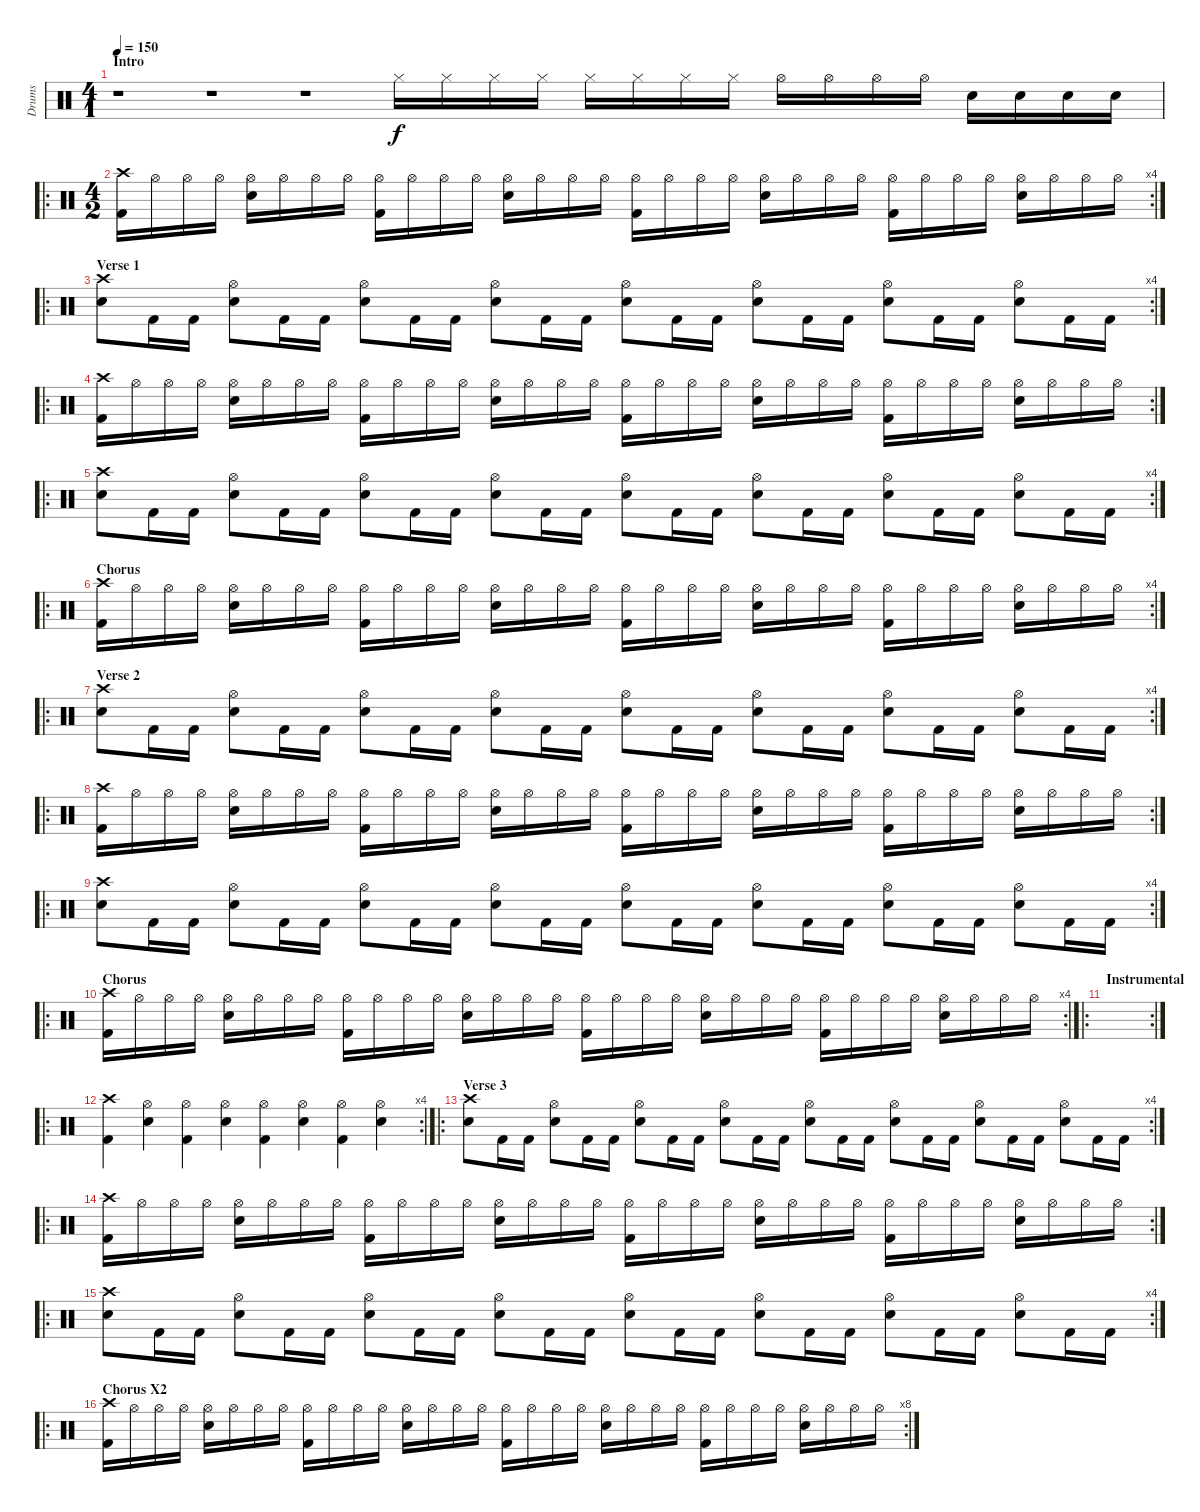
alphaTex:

\track ("Drums" "Drums") {instrument percussion}
\staff {score}
\articulation defaults
\ts (4 1)
\section ("" "Intro")
\tempo 150
\clef neutral
\ks c
r.1{dy f} r.1 r.1 "Hi-Hat (closed)".16 "Hi-Hat (closed)".16 "Hi-Hat (closed)".16 "Hi-Hat (closed)".16 "Hi-Hat (closed)".16 "Hi-Hat (closed)".16 "Hi-Hat (closed)".16 "Hi-Hat (closed)".16 "Hi-Hat (open)".16 "Hi-Hat (open)".16 "Hi-Hat (open)".16 "Hi-Hat (open)".16 "Electric Snare (hit)".16 "Electric Snare (hit)".16 "Electric Snare (hit)".16 "Electric Snare (hit)".16 |
\ro
\rc 4
\ts (4 2)
("Crash high (hit)" "Kick (hit) 2").16 "Hi-Hat (open)".16 "Hi-Hat (open)".16 "Hi-Hat (open)".16 ("Hi-Hat (open)" "Electric Snare (hit)").16 "Hi-Hat (open)".16 "Hi-Hat (open)".16 "Hi-Hat (open)".16 ("Hi-Hat (open)" "Kick (hit) 2").16 "Hi-Hat (open)".16 "Hi-Hat (open)".16 "Hi-Hat (open)".16 ("Hi-Hat (open)" "Electric Snare (hit)").16 "Hi-Hat (open)".16 "Hi-Hat (open)".16 "Hi-Hat (open)".16 ("Hi-Hat (open)" "Kick (hit) 2").16 "Hi-Hat (open)".16 "Hi-Hat (open)".16 "Hi-Hat (open)".16 ("Hi-Hat (open)" "Electric Snare (hit)").16 "Hi-Hat (open)".16 "Hi-Hat (open)".16 "Hi-Hat (open)".16 ("Hi-Hat (open)" "Kick (hit) 2").16 "Hi-Hat (open)".16 "Hi-Hat (open)".16 "Hi-Hat (open)".16 ("Hi-Hat (open)" "Electric Snare (hit)").16 "Hi-Hat (open)".16 "Hi-Hat (open)".16 "Hi-Hat (open)".16 |
\ro
\rc 4
\section ("" "Verse 1")
("Crash high (hit)" "Electric Snare (hit)").8 "Kick (hit) 2".16 "Kick (hit) 2".16 ("Hi-Hat (open)" "Electric Snare (hit)").8 "Kick (hit) 2".16 "Kick (hit) 2".16 ("Hi-Hat (open)" "Electric Snare (hit)").8 "Kick (hit) 2".16 "Kick (hit) 2".16 ("Hi-Hat (open)" "Electric Snare (hit)").8 "Kick (hit) 2".16 "Kick (hit) 2".16 ("Hi-Hat (open)" "Electric Snare (hit)").8 "Kick (hit) 2".16 "Kick (hit) 2".16 ("Hi-Hat (open)" "Electric Snare (hit)").8 "Kick (hit) 2".16 "Kick (hit) 2".16 ("Hi-Hat (open)" "Electric Snare (hit)").8 "Kick (hit) 2".16 "Kick (hit) 2".16 ("Hi-Hat (open)" "Electric Snare (hit)").8 "Kick (hit) 2".16 "Kick (hit) 2".16 |
\ro
\rc 2
("Crash high (hit)" "Kick (hit) 2").16 "Hi-Hat (open)".16 "Hi-Hat (open)".16 "Hi-Hat (open)".16 ("Hi-Hat (open)" "Electric Snare (hit)").16 "Hi-Hat (open)".16 "Hi-Hat (open)".16 "Hi-Hat (open)".16 ("Hi-Hat (open)" "Kick (hit) 2").16 "Hi-Hat (open)".16 "Hi-Hat (open)".16 "Hi-Hat (open)".16 ("Hi-Hat (open)" "Electric Snare (hit)").16 "Hi-Hat (open)".16 "Hi-Hat (open)".16 "Hi-Hat (open)".16 ("Hi-Hat (open)" "Kick (hit) 2").16 "Hi-Hat (open)".16 "Hi-Hat (open)".16 "Hi-Hat (open)".16 ("Hi-Hat (open)" "Electric Snare (hit)").16 "Hi-Hat (open)".16 "Hi-Hat (open)".16 "Hi-Hat (open)".16 ("Hi-Hat (open)" "Kick (hit) 2").16 "Hi-Hat (open)".16 "Hi-Hat (open)".16 "Hi-Hat (open)".16 ("Hi-Hat (open)" "Electric Snare (hit)").16 "Hi-Hat (open)".16 "Hi-Hat (open)".16 "Hi-Hat (open)".16 |
\ro
\rc 4
("Crash high (hit)" "Electric Snare (hit)").8 "Kick (hit) 2".16 "Kick (hit) 2".16 ("Hi-Hat (open)" "Electric Snare (hit)").8 "Kick (hit) 2".16 "Kick (hit) 2".16 ("Hi-Hat (open)" "Electric Snare (hit)").8 "Kick (hit) 2".16 "Kick (hit) 2".16 ("Hi-Hat (open)" "Electric Snare (hit)").8 "Kick (hit) 2".16 "Kick (hit) 2".16 ("Hi-Hat (open)" "Electric Snare (hit)").8 "Kick (hit) 2".16 "Kick (hit) 2".16 ("Hi-Hat (open)" "Electric Snare (hit)").8 "Kick (hit) 2".16 "Kick (hit) 2".16 ("Hi-Hat (open)" "Electric Snare (hit)").8 "Kick (hit) 2".16 "Kick (hit) 2".16 ("Hi-Hat (open)" "Electric Snare (hit)").8 "Kick (hit) 2".16 "Kick (hit) 2".16 |
\ro
\rc 4
\section ("" "Chorus")
("Crash high (hit)" "Kick (hit) 2").16 "Hi-Hat (open)".16 "Hi-Hat (open)".16 "Hi-Hat (open)".16 ("Hi-Hat (open)" "Electric Snare (hit)").16 "Hi-Hat (open)".16 "Hi-Hat (open)".16 "Hi-Hat (open)".16 ("Hi-Hat (open)" "Kick (hit) 2").16 "Hi-Hat (open)".16 "Hi-Hat (open)".16 "Hi-Hat (open)".16 ("Hi-Hat (open)" "Electric Snare (hit)").16 "Hi-Hat (open)".16 "Hi-Hat (open)".16 "Hi-Hat (open)".16 ("Hi-Hat (open)" "Kick (hit) 2").16 "Hi-Hat (open)".16 "Hi-Hat (open)".16 "Hi-Hat (open)".16 ("Hi-Hat (open)" "Electric Snare (hit)").16 "Hi-Hat (open)".16 "Hi-Hat (open)".16 "Hi-Hat (open)".16 ("Hi-Hat (open)" "Kick (hit) 2").16 "Hi-Hat (open)".16 "Hi-Hat (open)".16 "Hi-Hat (open)".16 ("Hi-Hat (open)" "Electric Snare (hit)").16 "Hi-Hat (open)".16 "Hi-Hat (open)".16 "Hi-Hat (open)".16 |
\ro
\rc 4
\section ("" "Verse 2")
("Crash high (hit)" "Electric Snare (hit)").8 "Kick (hit) 2".16 "Kick (hit) 2".16 ("Hi-Hat (open)" "Electric Snare (hit)").8 "Kick (hit) 2".16 "Kick (hit) 2".16 ("Hi-Hat (open)" "Electric Snare (hit)").8 "Kick (hit) 2".16 "Kick (hit) 2".16 ("Hi-Hat (open)" "Electric Snare (hit)").8 "Kick (hit) 2".16 "Kick (hit) 2".16 ("Hi-Hat (open)" "Electric Snare (hit)").8 "Kick (hit) 2".16 "Kick (hit) 2".16 ("Hi-Hat (open)" "Electric Snare (hit)").8 "Kick (hit) 2".16 "Kick (hit) 2".16 ("Hi-Hat (open)" "Electric Snare (hit)").8 "Kick (hit) 2".16 "Kick (hit) 2".16 ("Hi-Hat (open)" "Electric Snare (hit)").8 "Kick (hit) 2".16 "Kick (hit) 2".16 |
\ro
\rc 2
("Crash high (hit)" "Kick (hit) 2").16 "Hi-Hat (open)".16 "Hi-Hat (open)".16 "Hi-Hat (open)".16 ("Hi-Hat (open)" "Electric Snare (hit)").16 "Hi-Hat (open)".16 "Hi-Hat (open)".16 "Hi-Hat (open)".16 ("Hi-Hat (open)" "Kick (hit) 2").16 "Hi-Hat (open)".16 "Hi-Hat (open)".16 "Hi-Hat (open)".16 ("Hi-Hat (open)" "Electric Snare (hit)").16 "Hi-Hat (open)".16 "Hi-Hat (open)".16 "Hi-Hat (open)".16 ("Hi-Hat (open)" "Kick (hit) 2").16 "Hi-Hat (open)".16 "Hi-Hat (open)".16 "Hi-Hat (open)".16 ("Hi-Hat (open)" "Electric Snare (hit)").16 "Hi-Hat (open)".16 "Hi-Hat (open)".16 "Hi-Hat (open)".16 ("Hi-Hat (open)" "Kick (hit) 2").16 "Hi-Hat (open)".16 "Hi-Hat (open)".16 "Hi-Hat (open)".16 ("Hi-Hat (open)" "Electric Snare (hit)").16 "Hi-Hat (open)".16 "Hi-Hat (open)".16 "Hi-Hat (open)".16 |
\ro
\rc 4
("Crash high (hit)" "Electric Snare (hit)").8 "Kick (hit) 2".16 "Kick (hit) 2".16 ("Hi-Hat (open)" "Electric Snare (hit)").8 "Kick (hit) 2".16 "Kick (hit) 2".16 ("Hi-Hat (open)" "Electric Snare (hit)").8 "Kick (hit) 2".16 "Kick (hit) 2".16 ("Hi-Hat (open)" "Electric Snare (hit)").8 "Kick (hit) 2".16 "Kick (hit) 2".16 ("Hi-Hat (open)" "Electric Snare (hit)").8 "Kick (hit) 2".16 "Kick (hit) 2".16 ("Hi-Hat (open)" "Electric Snare (hit)").8 "Kick (hit) 2".16 "Kick (hit) 2".16 ("Hi-Hat (open)" "Electric Snare (hit)").8 "Kick (hit) 2".16 "Kick (hit) 2".16 ("Hi-Hat (open)" "Electric Snare (hit)").8 "Kick (hit) 2".16 "Kick (hit) 2".16 |
\ro
\rc 4
\section ("" "Chorus")
("Crash high (hit)" "Kick (hit) 2").16 "Hi-Hat (open)".16 "Hi-Hat (open)".16 "Hi-Hat (open)".16 ("Hi-Hat (open)" "Electric Snare (hit)").16 "Hi-Hat (open)".16 "Hi-Hat (open)".16 "Hi-Hat (open)".16 ("Hi-Hat (open)" "Kick (hit) 2").16 "Hi-Hat (open)".16 "Hi-Hat (open)".16 "Hi-Hat (open)".16 ("Hi-Hat (open)" "Electric Snare (hit)").16 "Hi-Hat (open)".16 "Hi-Hat (open)".16 "Hi-Hat (open)".16 ("Hi-Hat (open)" "Kick (hit) 2").16 "Hi-Hat (open)".16 "Hi-Hat (open)".16 "Hi-Hat (open)".16 ("Hi-Hat (open)" "Electric Snare (hit)").16 "Hi-Hat (open)".16 "Hi-Hat (open)".16 "Hi-Hat (open)".16 ("Hi-Hat (open)" "Kick (hit) 2").16 "Hi-Hat (open)".16 "Hi-Hat (open)".16 "Hi-Hat (open)".16 ("Hi-Hat (open)" "Electric Snare (hit)").16 "Hi-Hat (open)".16 "Hi-Hat (open)".16 "Hi-Hat (open)".16 |
\ro
\rc 2
\section ("" "Instrumental")
|
\ro
\rc 4
("Crash high (hit)" "Kick (hit) 2").4 ("Hi-Hat (open)" "Electric Snare (hit)").4 ("Hi-Hat (open)" "Kick (hit) 2").4 ("Hi-Hat (open)" "Electric Snare (hit)").4 ("Hi-Hat (open)" "Kick (hit) 2").4 ("Hi-Hat (open)" "Electric Snare (hit)").4 ("Hi-Hat (open)" "Kick (hit) 2").4 ("Hi-Hat (open)" "Electric Snare (hit)").4 |
\ro
\rc 4
\section ("" "Verse 3")
("Crash high (hit)" "Electric Snare (hit)").8 "Kick (hit) 2".16 "Kick (hit) 2".16 ("Hi-Hat (open)" "Electric Snare (hit)").8 "Kick (hit) 2".16 "Kick (hit) 2".16 ("Hi-Hat (open)" "Electric Snare (hit)").8 "Kick (hit) 2".16 "Kick (hit) 2".16 ("Hi-Hat (open)" "Electric Snare (hit)").8 "Kick (hit) 2".16 "Kick (hit) 2".16 ("Hi-Hat (open)" "Electric Snare (hit)").8 "Kick (hit) 2".16 "Kick (hit) 2".16 ("Hi-Hat (open)" "Electric Snare (hit)").8 "Kick (hit) 2".16 "Kick (hit) 2".16 ("Hi-Hat (open)" "Electric Snare (hit)").8 "Kick (hit) 2".16 "Kick (hit) 2".16 ("Hi-Hat (open)" "Electric Snare (hit)").8 "Kick (hit) 2".16 "Kick (hit) 2".16 |
\ro
\rc 2
("Crash high (hit)" "Kick (hit) 2").16 "Hi-Hat (open)".16 "Hi-Hat (open)".16 "Hi-Hat (open)".16 ("Hi-Hat (open)" "Electric Snare (hit)").16 "Hi-Hat (open)".16 "Hi-Hat (open)".16 "Hi-Hat (open)".16 ("Hi-Hat (open)" "Kick (hit) 2").16 "Hi-Hat (open)".16 "Hi-Hat (open)".16 "Hi-Hat (open)".16 ("Hi-Hat (open)" "Electric Snare (hit)").16 "Hi-Hat (open)".16 "Hi-Hat (open)".16 "Hi-Hat (open)".16 ("Hi-Hat (open)" "Kick (hit) 2").16 "Hi-Hat (open)".16 "Hi-Hat (open)".16 "Hi-Hat (open)".16 ("Hi-Hat (open)" "Electric Snare (hit)").16 "Hi-Hat (open)".16 "Hi-Hat (open)".16 "Hi-Hat (open)".16 ("Hi-Hat (open)" "Kick (hit) 2").16 "Hi-Hat (open)".16 "Hi-Hat (open)".16 "Hi-Hat (open)".16 ("Hi-Hat (open)" "Electric Snare (hit)").16 "Hi-Hat (open)".16 "Hi-Hat (open)".16 "Hi-Hat (open)".16 |
\ro
\rc 4
("Crash high (hit)" "Electric Snare (hit)").8 "Kick (hit) 2".16 "Kick (hit) 2".16 ("Hi-Hat (open)" "Electric Snare (hit)").8 "Kick (hit) 2".16 "Kick (hit) 2".16 ("Hi-Hat (open)" "Electric Snare (hit)").8 "Kick (hit) 2".16 "Kick (hit) 2".16 ("Hi-Hat (open)" "Electric Snare (hit)").8 "Kick (hit) 2".16 "Kick (hit) 2".16 ("Hi-Hat (open)" "Electric Snare (hit)").8 "Kick (hit) 2".16 "Kick (hit) 2".16 ("Hi-Hat (open)" "Electric Snare (hit)").8 "Kick (hit) 2".16 "Kick (hit) 2".16 ("Hi-Hat (open)" "Electric Snare (hit)").8 "Kick (hit) 2".16 "Kick (hit) 2".16 ("Hi-Hat (open)" "Electric Snare (hit)").8 "Kick (hit) 2".16 "Kick (hit) 2".16 |
\ro
\rc 8
\section ("" "Chorus X2")
("Crash high (hit)" "Kick (hit) 2").16 "Hi-Hat (open)".16 "Hi-Hat (open)".16 "Hi-Hat (open)".16 ("Hi-Hat (open)" "Electric Snare (hit)").16 "Hi-Hat (open)".16 "Hi-Hat (open)".16 "Hi-Hat (open)".16 ("Hi-Hat (open)" "Kick (hit) 2").16 "Hi-Hat (open)".16 "Hi-Hat (open)".16 "Hi-Hat (open)".16 ("Hi-Hat (open)" "Electric Snare (hit)").16 "Hi-Hat (open)".16 "Hi-Hat (open)".16 "Hi-Hat (open)".16 ("Hi-Hat (open)" "Kick (hit) 2").16 "Hi-Hat (open)".16 "Hi-Hat (open)".16 "Hi-Hat (open)".16 ("Hi-Hat (open)" "Electric Snare (hit)").16 "Hi-Hat (open)".16 "Hi-Hat (open)".16 "Hi-Hat (open)".16 ("Hi-Hat (open)" "Kick (hit) 2").16 "Hi-Hat (open)".16 "Hi-Hat (open)".16 "Hi-Hat (open)".16 ("Hi-Hat (open)" "Electric Snare (hit)").16 "Hi-Hat (open)".16 "Hi-Hat (open)".16 "Hi-Hat (open)".16
